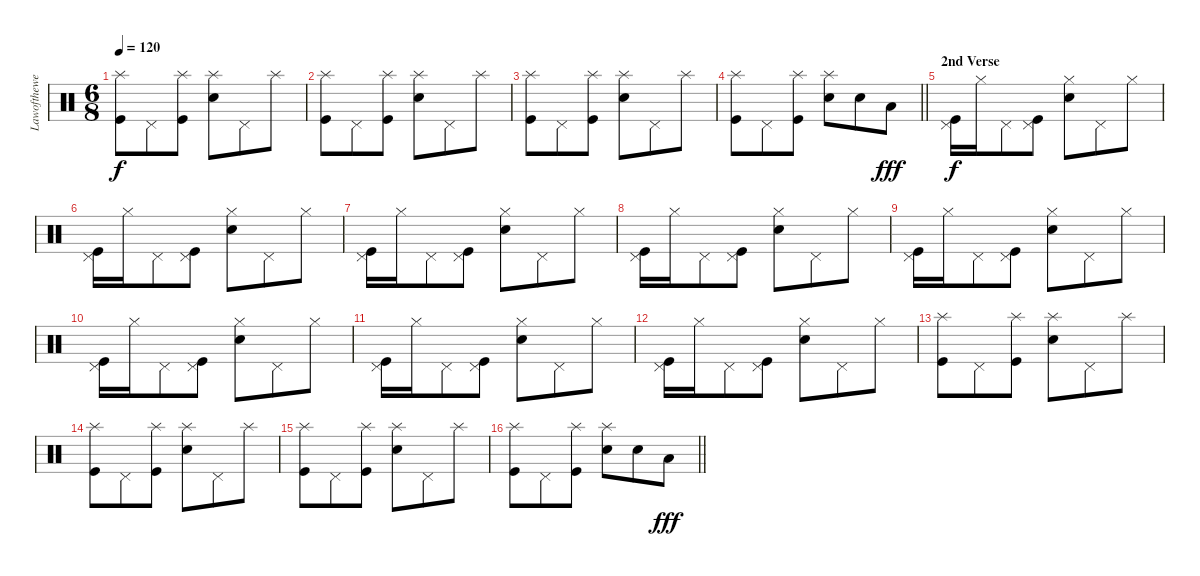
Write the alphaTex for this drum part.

\track ("Lawofthewest (drums)" "Lawofthewe") {instrument percussion}
\staff {score}
\articulation defaults
\ts (6 8)
\tempo 120
\clef neutral
\ks c
("Splash (hit)" "Kick (hit)").8{dy f} "Pedal Hi-Hat (hit)".8 ("Splash (hit)" "Kick (hit)").8 ("Splash (hit)" "Snare (hit) 2").8 "Pedal Hi-Hat (hit)".8 "Splash (hit)".8 |
("Splash (hit)" "Kick (hit)").8 "Pedal Hi-Hat (hit)".8 ("Splash (hit)" "Kick (hit)").8 ("Splash (hit)" "Snare (hit) 2").8 "Pedal Hi-Hat (hit)".8 "Splash (hit)".8 |
("Splash (hit)" "Kick (hit)").8 "Pedal Hi-Hat (hit)".8 ("Splash (hit)" "Kick (hit)").8 ("Splash (hit)" "Snare (hit) 2").8 "Pedal Hi-Hat (hit)".8 "Splash (hit)".8 |
\barLineRight lightlight
("Splash (hit)" "Kick (hit)").8 "Pedal Hi-Hat (hit)".8 ("Splash (hit)" "Kick (hit)").8 ("Splash (hit)" "Snare (hit) 2").8 "Snare (hit) 2".8 "Low Tom (hit)".8{dy fff} |
\section ("" "2nd Verse")
("Pedal Hi-Hat (hit)" "Kick (hit)").16{dy f} "Hi-Hat (closed)".16 "Pedal Hi-Hat (hit)".8 ("Pedal Hi-Hat (hit)" "Kick (hit)").8 ("Hi-Hat (closed)" "Snare (hit) 2").8 "Pedal Hi-Hat (hit)".8 "Hi-Hat (closed)".8 |
("Pedal Hi-Hat (hit)" "Kick (hit)").16 "Hi-Hat (closed)".16 "Pedal Hi-Hat (hit)".8 ("Pedal Hi-Hat (hit)" "Kick (hit)").8 ("Hi-Hat (closed)" "Snare (hit) 2").8 "Pedal Hi-Hat (hit)".8 "Hi-Hat (closed)".8 |
("Pedal Hi-Hat (hit)" "Kick (hit)").16 "Hi-Hat (closed)".16 "Pedal Hi-Hat (hit)".8 ("Pedal Hi-Hat (hit)" "Kick (hit)").8 ("Hi-Hat (closed)" "Snare (hit) 2").8 "Pedal Hi-Hat (hit)".8 "Hi-Hat (closed)".8 |
("Pedal Hi-Hat (hit)" "Kick (hit)").16 "Hi-Hat (closed)".16 "Pedal Hi-Hat (hit)".8 ("Pedal Hi-Hat (hit)" "Kick (hit)").8 ("Hi-Hat (closed)" "Snare (hit) 2").8 "Pedal Hi-Hat (hit)".8 "Hi-Hat (closed)".8 |
("Pedal Hi-Hat (hit)" "Kick (hit)").16 "Hi-Hat (closed)".16 "Pedal Hi-Hat (hit)".8 ("Pedal Hi-Hat (hit)" "Kick (hit)").8 ("Hi-Hat (closed)" "Snare (hit) 2").8 "Pedal Hi-Hat (hit)".8 "Hi-Hat (closed)".8 |
("Pedal Hi-Hat (hit)" "Kick (hit)").16 "Hi-Hat (closed)".16 "Pedal Hi-Hat (hit)".8 ("Pedal Hi-Hat (hit)" "Kick (hit)").8 ("Hi-Hat (closed)" "Snare (hit) 2").8 "Pedal Hi-Hat (hit)".8 "Hi-Hat (closed)".8 |
("Pedal Hi-Hat (hit)" "Kick (hit)").16 "Hi-Hat (closed)".16 "Pedal Hi-Hat (hit)".8 ("Pedal Hi-Hat (hit)" "Kick (hit)").8 ("Hi-Hat (closed)" "Snare (hit) 2").8 "Pedal Hi-Hat (hit)".8 "Hi-Hat (closed)".8 |
("Pedal Hi-Hat (hit)" "Kick (hit)").16 "Hi-Hat (closed)".16 "Pedal Hi-Hat (hit)".8 ("Pedal Hi-Hat (hit)" "Kick (hit)").8 ("Hi-Hat (closed)" "Snare (hit) 2").8 "Pedal Hi-Hat (hit)".8 "Hi-Hat (closed)".8 |
("Splash (hit)" "Kick (hit)").8 "Pedal Hi-Hat (hit)".8 ("Splash (hit)" "Kick (hit)").8 ("Splash (hit)" "Snare (hit) 2").8 "Pedal Hi-Hat (hit)".8 "Splash (hit)".8 |
("Splash (hit)" "Kick (hit)").8 "Pedal Hi-Hat (hit)".8 ("Splash (hit)" "Kick (hit)").8 ("Splash (hit)" "Snare (hit) 2").8 "Pedal Hi-Hat (hit)".8 "Splash (hit)".8 |
("Splash (hit)" "Kick (hit)").8 "Pedal Hi-Hat (hit)".8 ("Splash (hit)" "Kick (hit)").8 ("Splash (hit)" "Snare (hit) 2").8 "Pedal Hi-Hat (hit)".8 "Splash (hit)".8 |
\barLineRight lightlight
("Splash (hit)" "Kick (hit)").8 "Pedal Hi-Hat (hit)".8 ("Splash (hit)" "Kick (hit)").8 ("Splash (hit)" "Snare (hit) 2").8 "Snare (hit) 2".8 "Low Tom (hit)".8{dy fff}
